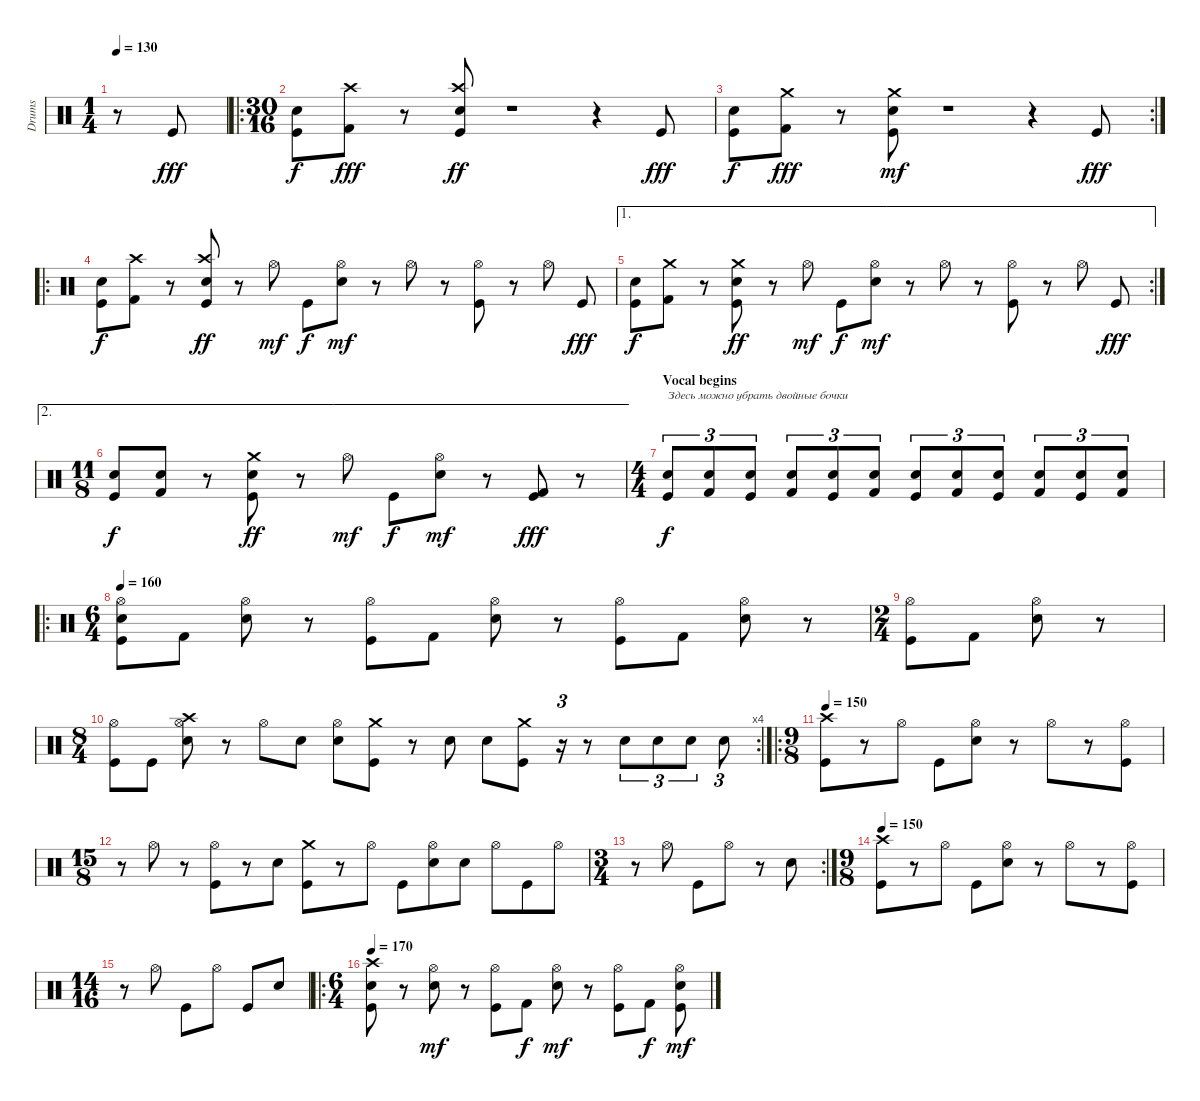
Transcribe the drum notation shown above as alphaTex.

\track ("Drums" "Drums") {instrument percussion}
\staff {score}
\articulation defaults
\ts (1 4)
\tempo 130
\clef neutral
\ks c
r.8{dy fff} "Kick (hit)".8 |
\ro
\ts (30 16)
("Kick (hit)" "Snare (hit) 2").8{dy f} ("Crash high (hit)" "Kick (hit) 2").8{dy fff} r.8 ("Crash high (hit)" "Kick (hit)" "Electric Snare (hit)").8{dy ff} r.1 r.4 "Kick (hit)".8{dy fff} |
\rc 2
("Kick (hit)" "Snare (hit) 2").8{dy f} ("Crash medium (hit)" "Kick (hit) 2").8{dy fff} r.8 ("Crash medium (hit)" "Kick (hit)" "Electric Snare (hit)").8{dy mf} r.1 r.4 "Kick (hit)".8{dy fff} |
\ro
("Kick (hit)" "Snare (hit) 2").8{dy f} ("Kick (hit) 2" "Crash high (hit)").8 r.8 ("Crash high (hit)" "Kick (hit)" "Electric Snare (hit)").8{dy ff} r.8 "Hi-Hat (open)".8{dy mf} "Kick (hit)".8{dy f} ("Hi-Hat (open)" "Snare (hit) 2").8{dy mf} r.8 "Hi-Hat (open)".8 r.8 ("Hi-Hat (open)" "Kick (hit)").8 r.8 "Hi-Hat (open)".8 "Kick (hit)".8{dy fff} |
\ae 1
\rc 2
("Kick (hit)" "Snare (hit) 2").8{dy f} ("Kick (hit) 2" "Crash medium (hit)").8 r.8 ("Crash medium (hit)" "Kick (hit)" "Electric Snare (hit)").8{dy ff} r.8 "Hi-Hat (open)".8{dy mf} "Kick (hit)".8{dy f} ("Hi-Hat (open)" "Snare (hit) 2").8{dy mf} r.8 "Hi-Hat (open)".8 r.8 ("Hi-Hat (open)" "Kick (hit)").8 r.8 "Hi-Hat (open)".8 "Kick (hit)".8{dy fff} |
\ae 2
\ts (11 8)
("Kick (hit)" "Snare (hit) 2").8{dy f} ("Kick (hit) 2" "Snare (hit) 2").8 r.8 ("Crash medium (hit)" "Kick (hit)" "Electric Snare (hit)").8{dy ff} r.8 "Hi-Hat (open)".8{dy mf} "Kick (hit)".8{dy f} ("Hi-Hat (open)" "Snare (hit) 2").8{dy mf} r.8 ("Kick (hit) 2" "Kick (hit)").8{dy fff} r.8 |
\ts (4 4)
\section ("" "Vocal begins")
("Kick (hit)" "Snare (hit) 2").8{tu (3 2) txt "Здесь можно убрать двойные бочки" dy f} ("Kick (hit) 2" "Snare (hit) 2").8{tu (3 2)} ("Kick (hit)" "Snare (hit) 2").8{tu (3 2)} ("Kick (hit) 2" "Snare (hit) 2").8{tu (3 2)} ("Kick (hit)" "Snare (hit) 2").8{tu (3 2)} ("Kick (hit) 2" "Snare (hit) 2").8{tu (3 2)} ("Kick (hit)" "Snare (hit) 2").8{tu (3 2)} ("Kick (hit) 2" "Snare (hit) 2").8{tu (3 2)} ("Kick (hit)" "Snare (hit) 2").8{tu (3 2)} ("Kick (hit) 2" "Snare (hit) 2").8{tu (3 2)} ("Kick (hit)" "Snare (hit) 2").8{tu (3 2)} ("Kick (hit) 2" "Snare (hit) 2").8{tu (3 2)} |
\ro
\ts (6 4)
\tempo 160
("Hi-Hat (open)" "Snare (hit) 2" "Kick (hit)").8 "Kick (hit) 2".8 ("Hi-Hat (open)" "Snare (hit) 2").8 r.8 ("Hi-Hat (open)" "Kick (hit)").8 "Kick (hit) 2".8 ("Hi-Hat (open)" "Snare (hit) 2").8 r.8 ("Hi-Hat (open)" "Kick (hit)").8 "Kick (hit) 2".8 ("Hi-Hat (open)" "Snare (hit) 2").8 r.8 |
\ts (2 4)
("Hi-Hat (open)" "Kick (hit)").8 "Kick (hit) 2".8 ("Hi-Hat (open)" "Snare (hit) 2").8 r.8 |
\rc 4
\ts (8 4)
("Hi-Hat (open)" "Kick (hit)").8 "Kick (hit)".8 ("Hi-Hat (open)" "Crash high (hit)" "Snare (hit) 2").8 r.8 "Hi-Hat (open)".8 "Snare (hit) 2".8 ("Hi-Hat (open)" "Snare (hit) 2").8 ("Kick (hit)" "Crash medium (hit)").8 r.8 "Snare (hit) 2".8 "Snare (hit) 2".8 ("Kick (hit)" "Crash medium (hit)").8 r.16{tu (3 2)} r.8 "Snare (hit) 2".8{tu (3 2)} "Snare (hit) 2".8{tu (3 2)} "Snare (hit) 2".8{tu (3 2)} "Snare (hit) 2".8{tu (3 2)} |
\ro
\ts (9 8)
\tempo 150
("Crash high (hit)" "Kick (hit)").8 r.8 "Hi-Hat (open)".8 "Kick (hit)".8 ("Hi-Hat (open)" "Snare (hit) 2").8 r.8 "Hi-Hat (open)".8 r.8 ("Hi-Hat (open)" "Kick (hit)").8 |
\ts (15 8)
r.8 "Hi-Hat (open)".8 r.8 ("Hi-Hat (open)" "Kick (hit)").8 r.8 "Snare (hit) 2".8 ("Crash medium (hit)" "Kick (hit)").8 r.8 "Hi-Hat (open)".8 "Kick (hit)".8 ("Hi-Hat (open)" "Snare (hit) 2").8 "Snare (hit) 2".8 "Hi-Hat (open)".8 "Kick (hit)".8 "Hi-Hat (open)".8 |
\rc 2
\ts (3 4)
r.8 "Hi-Hat (open)".8 "Kick (hit)".8 "Hi-Hat (open)".8 r.8 "Snare (hit) 2".8 |
\ts (9 8)
\tempo 150
("Crash high (hit)" "Kick (hit)").8 r.8 "Hi-Hat (open)".8 "Kick (hit)".8 ("Hi-Hat (open)" "Snare (hit) 2").8 r.8 "Hi-Hat (open)".8 r.8 ("Hi-Hat (open)" "Kick (hit)").8 |
\ts (14 16)
r.8 "Hi-Hat (open)".8 "Kick (hit)".8 "Hi-Hat (open)".8 "Kick (hit)".8 "Snare (hit) 2".8 |
\ro
\ts (6 4)
\tempo 170
("Crash high (hit)" "Snare (hit) 2" "Kick (hit)").8 r.8 ("Hi-Hat (open)" "Snare (hit) 2").8{dy mf} r.8 ("Hi-Hat (open)" "Kick (hit)").8 "Kick (hit) 2".8{dy f} ("Hi-Hat (open)" "Snare (hit) 2").8{dy mf} r.8 ("Hi-Hat (open)" "Kick (hit)").8 "Kick (hit) 2".8{dy f} ("Hi-Hat (open)" "Kick (hit)" "Snare (hit) 2").8{dy mf}
